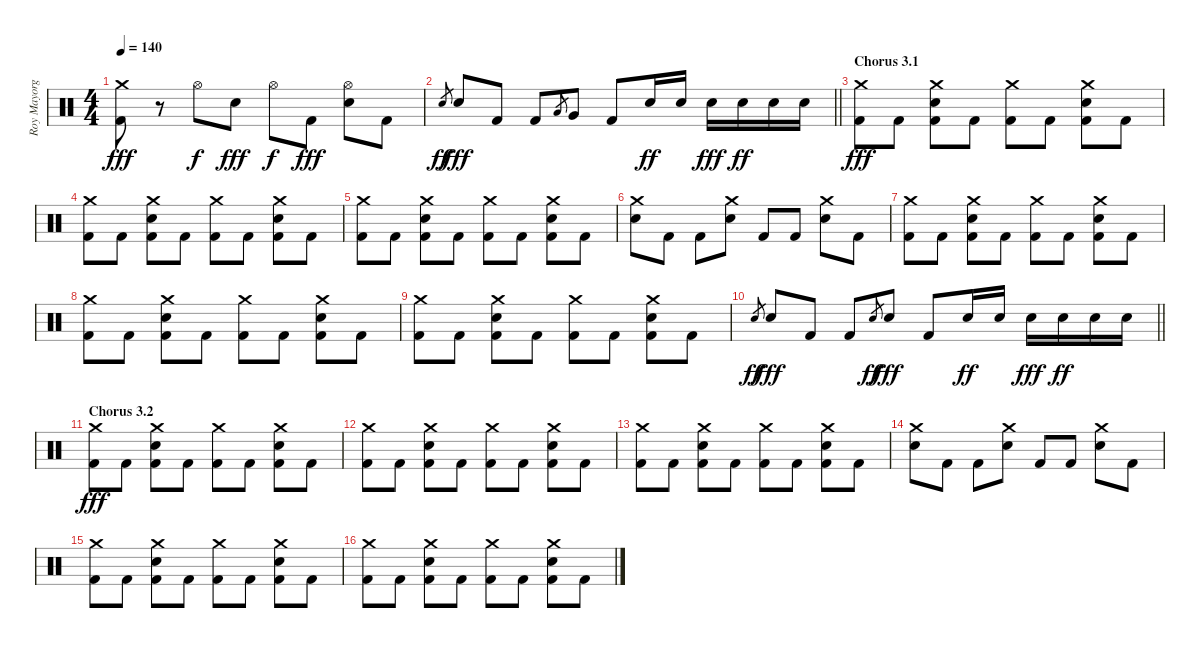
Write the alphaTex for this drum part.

\track ("Roy Mayorga" "Roy Mayorg") {instrument percussion}
\staff {score}
\articulation defaults
\ts (4 4)
\tempo 140
\clef neutral
\ks c
("Crash medium (hit)" "Kick (hit) 2").8{dy fff} r.8 "Hi-Hat (open)".8{dy f} "Electric Snare (hit)".8{dy fff} "Hi-Hat (open)".8{dy f} "Kick (hit) 2".8{dy fff} ("Hi-Hat (open)" "Electric Snare (hit)").8 "Kick (hit) 2".8 |
\barLineRight lightlight "Electric Snare (hit)".8{gr dy ff} "Electric Snare (hit)".8{dy fff} "Kick (hit) 2".8 "Kick (hit) 2".8 "Low Floor Tom (hit)".8{gr} "Very Low Tom (hit)".8 "Kick (hit) 2".8 "Electric Snare (hit)".16{dy ff} "Electric Snare (hit)".16 "Electric Snare (hit)".16{dy fff} "Electric Snare (hit)".16{dy ff} "Electric Snare (hit)".16 "Electric Snare (hit)".16
|
\section ("" "Chorus 3.1")
("Crash medium (hit)" "Kick (hit) 2").8{dy fff} "Kick (hit) 2".8 ("Crash medium (hit)" "Electric Snare (hit)" "Kick (hit) 2").8 "Kick (hit) 2".8 ("Crash medium (hit)" "Kick (hit) 2").8 "Kick (hit) 2".8 ("Crash medium (hit)" "Electric Snare (hit)" "Kick (hit) 2").8 "Kick (hit) 2".8 |
("Crash medium (hit)" "Kick (hit) 2").8 "Kick (hit) 2".8 ("Crash medium (hit)" "Electric Snare (hit)" "Kick (hit) 2").8 "Kick (hit) 2".8 ("Crash medium (hit)" "Kick (hit) 2").8 "Kick (hit) 2".8 ("Crash medium (hit)" "Electric Snare (hit)" "Kick (hit) 2").8 "Kick (hit) 2".8 |
("Crash medium (hit)" "Kick (hit) 2").8 "Kick (hit) 2".8 ("Crash medium (hit)" "Electric Snare (hit)" "Kick (hit) 2").8 "Kick (hit) 2".8 ("Crash medium (hit)" "Kick (hit) 2").8 "Kick (hit) 2".8 ("Crash medium (hit)" "Electric Snare (hit)" "Kick (hit) 2").8 "Kick (hit) 2".8 |
("Crash medium (hit)" "Electric Snare (hit)").8 "Kick (hit) 2".8 "Kick (hit) 2".8 ("Crash medium (hit)" "Electric Snare (hit)").8 "Kick (hit) 2".8 "Kick (hit) 2".8 ("Crash medium (hit)" "Electric Snare (hit)").8 "Kick (hit) 2".8 |
("Crash medium (hit)" "Kick (hit) 2").8 "Kick (hit) 2".8 ("Crash medium (hit)" "Electric Snare (hit)" "Kick (hit) 2").8 "Kick (hit) 2".8 ("Crash medium (hit)" "Kick (hit) 2").8 "Kick (hit) 2".8 ("Crash medium (hit)" "Electric Snare (hit)" "Kick (hit) 2").8 "Kick (hit) 2".8 |
("Crash medium (hit)" "Kick (hit) 2").8 "Kick (hit) 2".8 ("Crash medium (hit)" "Electric Snare (hit)" "Kick (hit) 2").8 "Kick (hit) 2".8 ("Crash medium (hit)" "Kick (hit) 2").8 "Kick (hit) 2".8 ("Crash medium (hit)" "Electric Snare (hit)" "Kick (hit) 2").8 "Kick (hit) 2".8 |
("Crash medium (hit)" "Kick (hit) 2").8 "Kick (hit) 2".8 ("Crash medium (hit)" "Electric Snare (hit)" "Kick (hit) 2").8 "Kick (hit) 2".8 ("Crash medium (hit)" "Kick (hit) 2").8 "Kick (hit) 2".8 ("Crash medium (hit)" "Electric Snare (hit)" "Kick (hit) 2").8 "Kick (hit) 2".8 |
\barLineRight lightlight "Electric Snare (hit)".8{gr dy ff} "Electric Snare (hit)".8{dy fff} "Kick (hit) 2".8 "Kick (hit) 2".8 "Electric Snare (hit)".8{gr dy ff} "Electric Snare (hit)".8{dy fff} "Kick (hit) 2".8 "Electric Snare (hit)".16{dy ff} "Electric Snare (hit)".16 "Electric Snare (hit)".16{dy fff} "Electric Snare (hit)".16{dy ff} "Electric Snare (hit)".16 "Electric Snare (hit)".16
|
\section ("" "Chorus 3.2")
("Crash medium (hit)" "Kick (hit) 2").8{dy fff} "Kick (hit) 2".8 ("Crash medium (hit)" "Electric Snare (hit)" "Kick (hit) 2").8 "Kick (hit) 2".8 ("Crash medium (hit)" "Kick (hit) 2").8 "Kick (hit) 2".8 ("Crash medium (hit)" "Electric Snare (hit)" "Kick (hit) 2").8 "Kick (hit) 2".8 |
("Crash medium (hit)" "Kick (hit) 2").8 "Kick (hit) 2".8 ("Crash medium (hit)" "Electric Snare (hit)" "Kick (hit) 2").8 "Kick (hit) 2".8 ("Crash medium (hit)" "Kick (hit) 2").8 "Kick (hit) 2".8 ("Crash medium (hit)" "Electric Snare (hit)" "Kick (hit) 2").8 "Kick (hit) 2".8 |
("Crash medium (hit)" "Kick (hit) 2").8 "Kick (hit) 2".8 ("Crash medium (hit)" "Electric Snare (hit)" "Kick (hit) 2").8 "Kick (hit) 2".8 ("Crash medium (hit)" "Kick (hit) 2").8 "Kick (hit) 2".8 ("Crash medium (hit)" "Electric Snare (hit)" "Kick (hit) 2").8 "Kick (hit) 2".8 |
("Crash medium (hit)" "Electric Snare (hit)").8 "Kick (hit) 2".8 "Kick (hit) 2".8 ("Crash medium (hit)" "Electric Snare (hit)").8 "Kick (hit) 2".8 "Kick (hit) 2".8 ("Crash medium (hit)" "Electric Snare (hit)").8 "Kick (hit) 2".8 |
("Crash medium (hit)" "Kick (hit) 2").8 "Kick (hit) 2".8 ("Crash medium (hit)" "Electric Snare (hit)" "Kick (hit) 2").8 "Kick (hit) 2".8 ("Crash medium (hit)" "Kick (hit) 2").8 "Kick (hit) 2".8 ("Crash medium (hit)" "Electric Snare (hit)" "Kick (hit) 2").8 "Kick (hit) 2".8 |
("Crash medium (hit)" "Kick (hit) 2").8 "Kick (hit) 2".8 ("Crash medium (hit)" "Electric Snare (hit)" "Kick (hit) 2").8 "Kick (hit) 2".8 ("Crash medium (hit)" "Kick (hit) 2").8 "Kick (hit) 2".8 ("Crash medium (hit)" "Electric Snare (hit)" "Kick (hit) 2").8 "Kick (hit) 2".8
